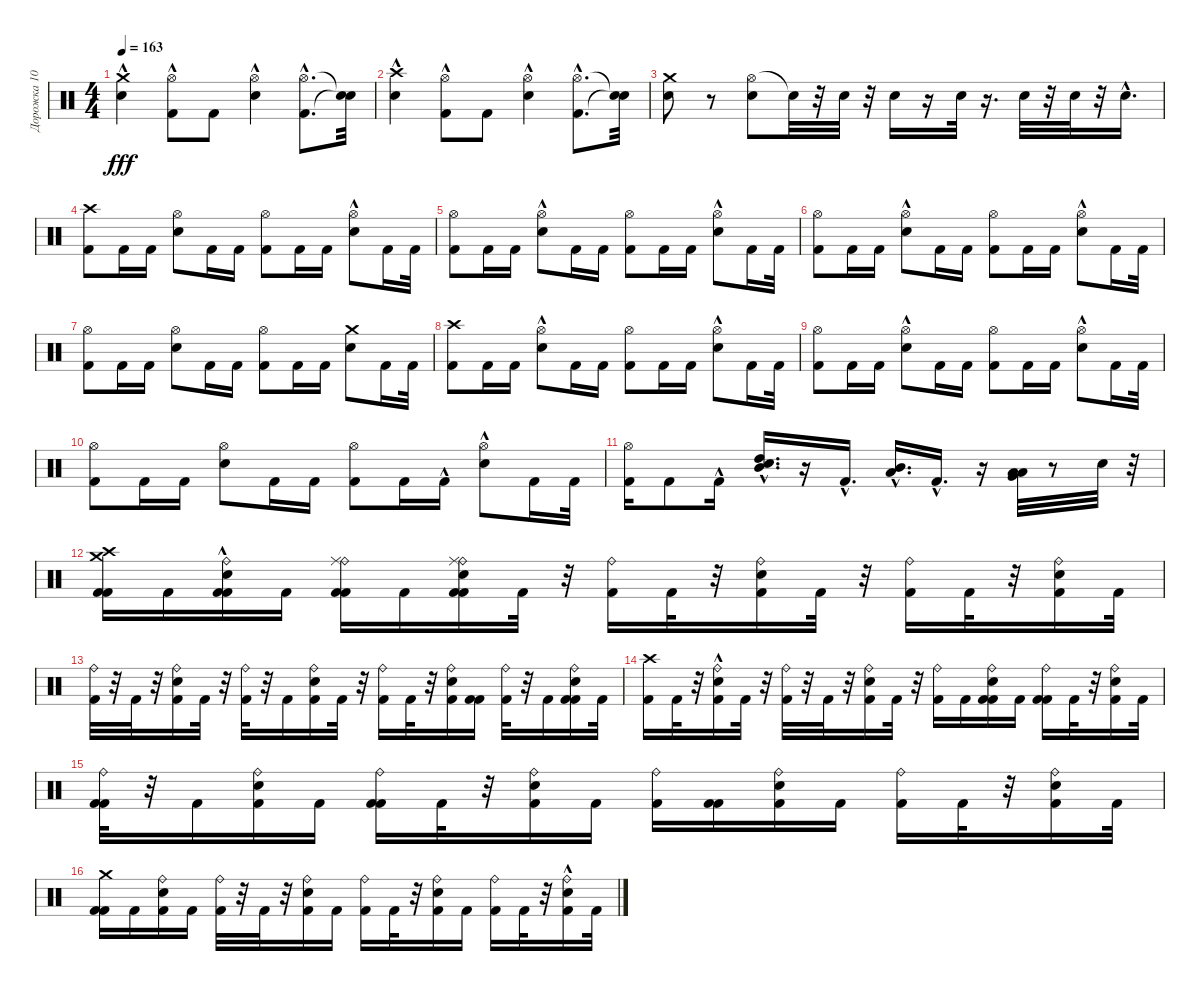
\track ("Дорожка 10" "Дорожка 10") {instrument percussion}
\staff {score}
\articulation defaults
\ts (4 4)
\tempo 163
\clef neutral
\ks c
("Electric Snare (hit)"{hac} "Crash medium (hit)"{hac}).4{dy fff} ("Kick (hit) 2" "Hi-Hat (open)"{hac}).8 "Kick (hit) 2".8 ("Hi-Hat (open)"{hac} "Electric Snare (hit)"{hac}).4 ("Kick (hit) 2"{hac} "Hi-Hat (open)"{hac}).8{d} ("Snare (hit)"{t} "Snare (hit)"{t}).32 |
("Electric Snare (hit)"{hac} "Crash high (hit)").4 ("Hi-Hat (open)" "Kick (hit) 2"{hac}).8 "Kick (hit) 2".8 ("Hi-Hat (open)" "Electric Snare (hit)"{hac}).4 ("Hi-Hat (open)"{hac} "Kick (hit) 2"{hac}).8{d} ("Snare (hit)"{t} "Snare (hit)"{t}).32 |
("Electric Snare (hit)" "Crash medium (hit)").8 r.8 ("Hi-Hat (open)" "Electric Snare (hit)").8 "Snare (hit)"{t}.32 r.32 "Electric Snare (hit)".32 r.32 "Electric Snare (hit)".16 r.16 "Electric Snare (hit)".32 r.16{d} "Electric Snare (hit)".32 r.32 "Electric Snare (hit)".32 r.32 "Electric Snare (hit)"{hac}.16{d} |
("Crash high (hit)" "Kick (hit) 2").8 "Kick (hit) 2".16 "Kick (hit) 2".16 ("Hi-Hat (open)" "Electric Snare (hit)").8 "Kick (hit) 2".16 "Kick (hit) 2".16 ("Hi-Hat (open)" "Kick (hit) 2").8 "Kick (hit) 2".16 "Kick (hit) 2".16 ("Electric Snare (hit)"{hac} "Hi-Hat (open)").8 "Kick (hit) 2".16 "Kick (hit) 2".32 |
("Hi-Hat (open)" "Kick (hit) 2").8 "Kick (hit) 2".16 "Kick (hit) 2".16 ("Hi-Hat (open)" "Electric Snare (hit)"{hac}).8 "Kick (hit) 2".16 "Kick (hit) 2".16 ("Hi-Hat (open)" "Kick (hit) 2").8 "Kick (hit) 2".16 "Kick (hit) 2".16 ("Electric Snare (hit)"{hac} "Hi-Hat (open)").8 "Kick (hit) 2".16 "Kick (hit) 2".32 |
("Hi-Hat (open)" "Kick (hit) 2").8 "Kick (hit) 2".16 "Kick (hit) 2".16 ("Hi-Hat (open)" "Electric Snare (hit)"{hac}).8 "Kick (hit) 2".16 "Kick (hit) 2".16 ("Hi-Hat (open)" "Kick (hit) 2").8 "Kick (hit) 2".16 "Kick (hit) 2".16 ("Hi-Hat (open)" "Electric Snare (hit)"{hac}).8 "Kick (hit) 2".16 "Kick (hit) 2".32 |
("Hi-Hat (open)" "Kick (hit) 2").8 "Kick (hit) 2".16 "Kick (hit) 2".16 ("Hi-Hat (open)" "Electric Snare (hit)").8 "Kick (hit) 2".16 "Kick (hit) 2".16 ("Hi-Hat (open)" "Kick (hit) 2").8 "Kick (hit) 2".16 "Kick (hit) 2".16 ("Electric Snare (hit)" "Crash medium (hit)").8 "Kick (hit) 2".16 "Kick (hit) 2".32 |
("Crash high (hit)" "Kick (hit) 2").8 "Kick (hit) 2".16 "Kick (hit) 2".16 ("Hi-Hat (open)" "Electric Snare (hit)"{hac}).8 "Kick (hit) 2".16 "Kick (hit) 2".16 ("Hi-Hat (open)" "Kick (hit) 2").8 "Kick (hit) 2".16 "Kick (hit) 2".16 ("Hi-Hat (open)" "Electric Snare (hit)"{hac}).8 "Kick (hit) 2".16 "Kick (hit) 2".32 |
("Hi-Hat (open)" "Kick (hit) 2").8 "Kick (hit) 2".16 "Kick (hit) 2".16 ("Hi-Hat (open)" "Electric Snare (hit)"{hac}).8 "Kick (hit) 2".16 "Kick (hit) 2".16 ("Hi-Hat (open)" "Kick (hit) 2").8 "Kick (hit) 2".16 "Kick (hit) 2".16 ("Hi-Hat (open)" "Electric Snare (hit)"{hac}).8 "Kick (hit) 2".16 "Kick (hit) 2".32 |
("Hi-Hat (open)" "Kick (hit) 2").8 "Kick (hit) 2".16 "Kick (hit) 2".16 ("Hi-Hat (open)" "Electric Snare (hit)").8 "Kick (hit) 2".16 "Kick (hit) 2".16 ("Hi-Hat (open)" "Kick (hit) 2").8 "Kick (hit) 2".16 "Kick (hit) 2"{hac}.16 ("Hi-Hat (open)" "Electric Snare (hit)"{hac}).8 "Kick (hit) 2".16 "Kick (hit) 2".32 |
("Hi-Hat (open)" "Kick (hit) 2").16 "Kick (hit) 2".8 "Kick (hit) 2"{hac}.16 ("High Tom (hit)"{hac} "Mid Tom (hit)"{hac} "Electric Snare (hit)"{hac}).16{d} r.16 "Kick (hit) 2"{hac}.16{d} ("Mid Tom (hit)"{hac} "Low Tom (hit)"{hac}).16{d} "Kick (hit) 2"{hac}.16{d} r.16 ("Low Tom (hit)" "Very Low Tom (hit)" "Low Floor Tom (hit)").32 r.8 "Electric Snare (hit)".32 r.32 |
("Kick (hit) 2" "Kick (hit) 2" "Crash high (hit)" "Crash medium (hit)").16 "Kick (hit) 2".16 ("Kick (hit) 2" "Electric Snare (hit)"{hac} "Ride (bell)" "Kick (hit) 2").16 "Kick (hit) 2".16 ("Kick (hit) 2" "Ride (bell)" "Ride (middle)" "Kick (hit) 2").16 "Kick (hit) 2".16 ("Kick (hit) 2" "Electric Snare (hit)" "Ride (bell)" "Ride (middle)" "Kick (hit) 2").16 "Kick (hit) 2".32 r.32 ("Ride (bell)" "Kick (hit) 2").16 "Kick (hit) 2".32 r.32 ("Electric Snare (hit)" "Ride (bell)" "Kick (hit) 2").16 "Kick (hit) 2".32 r.32 ("Ride (bell)" "Kick (hit) 2").16 "Kick (hit) 2".32 r.32 ("Electric Snare (hit)" "Ride (bell)" "Kick (hit) 2").16 "Kick (hit) 2".32 |
("Ride (bell)" "Kick (hit) 2").32 r.32 "Kick (hit) 2".32 r.32 ("Electric Snare (hit)" "Ride (bell)" "Kick (hit) 2").16 "Kick (hit) 2".32 r.32 ("Ride (bell)" "Kick (hit) 2").32 r.32 "Kick (hit) 2".16 ("Kick (hit) 2" "Electric Snare (hit)" "Ride (bell)").16 "Kick (hit) 2".32 r.32 ("Kick (hit) 2" "Ride (bell)").16 "Kick (hit) 2".32 r.32 ("Kick (hit) 2" "Electric Snare (hit)" "Ride (bell)").16 ("Kick (hit) 2" "Kick (hit) 2").16 ("Ride (bell)" "Kick (hit) 2").32 r.32 "Kick (hit) 2".16 ("Kick (hit) 2" "Electric Snare (hit)" "Ride (bell)" "Kick (hit) 2").16 "Kick (hit) 2".32 |
("Kick (hit) 2" "Crash high (hit)").16 "Kick (hit) 2".32 r.32 ("Electric Snare (hit)"{hac} "Ride (bell)" "Kick (hit) 2").16 "Kick (hit) 2".32 r.32 ("Ride (bell)" "Kick (hit) 2").32 r.32 "Kick (hit) 2".32 r.32 ("Electric Snare (hit)" "Ride (bell)" "Kick (hit) 2").16 "Kick (hit) 2".32 r.32 ("Kick (hit) 2" "Ride (bell)").16 "Kick (hit) 2".16 ("Kick (hit) 2" "Electric Snare (hit)" "Ride (bell)" "Kick (hit) 2").16 "Kick (hit) 2".16 ("Kick (hit) 2" "Ride (bell)" "Kick (hit) 2").16 "Kick (hit) 2".32 r.32 ("Electric Snare (hit)" "Ride (bell)" "Kick (hit) 2").16 "Kick (hit) 2".32 |
("Kick (hit) 2" "Kick (hit) 2" "Ride (bell)").32 r.32 "Kick (hit) 2".16 ("Electric Snare (hit)" "Ride (bell)" "Kick (hit) 2").16 "Kick (hit) 2".16 ("Kick (hit) 2" "Ride (bell)" "Kick (hit) 2").16 "Kick (hit) 2".32 r.32 ("Kick (hit) 2" "Electric Snare (hit)" "Ride (bell)").16 "Kick (hit) 2".16 ("Kick (hit) 2" "Ride (bell)").16 ("Kick (hit) 2" "Kick (hit) 2").16 ("Kick (hit) 2" "Electric Snare (hit)" "Ride (bell)").16 "Kick (hit) 2".16 ("Ride (bell)" "Kick (hit) 2").16 "Kick (hit) 2".32 r.32 ("Kick (hit) 2" "Electric Snare (hit)" "Ride (bell)").16 "Kick (hit) 2".32 |
("Kick (hit) 2" "Crash medium (hit)" "Kick (hit) 2").16 "Kick (hit) 2".16 ("Electric Snare (hit)" "Ride (bell)" "Kick (hit) 2").16 "Kick (hit) 2".16 ("Ride (bell)" "Kick (hit) 2").32 r.32 "Kick (hit) 2".32 r.32 ("Kick (hit) 2" "Electric Snare (hit)" "Ride (bell)").16 "Kick (hit) 2".16 ("Ride (bell)" "Kick (hit) 2").16 "Kick (hit) 2".32 r.32 ("Kick (hit) 2" "Electric Snare (hit)" "Ride (bell)").16 "Kick (hit) 2".16 ("Ride (bell)" "Kick (hit) 2").16 "Kick (hit) 2".32 r.32 ("Electric Snare (hit)" "Ride (bell)"{hac} "Kick (hit) 2").16 "Kick (hit) 2".32
